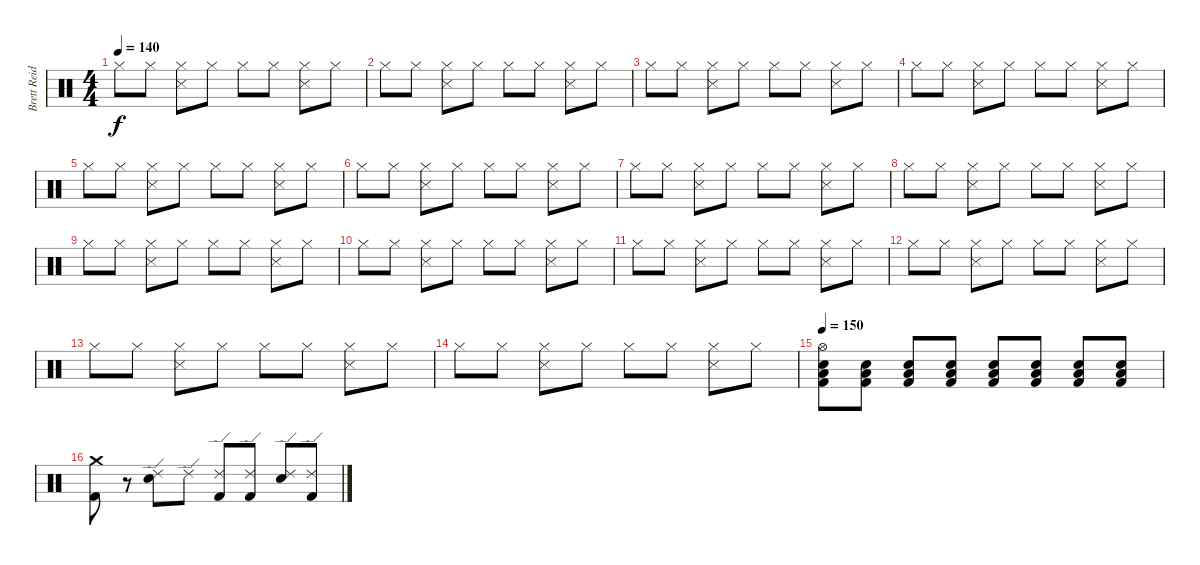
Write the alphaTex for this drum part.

\track ("Brett Reid" "Brett Reid") {instrument percussion}
\staff {score}
\articulation defaults
\ts (4 4)
\tempo 140
\clef neutral
\ks c "Hi-Hat (closed)".8{dy f} "Hi-Hat (closed)".8
("Snare (side stick) 3" "Hi-Hat (closed)").8 "Hi-Hat (closed)".8 "Hi-Hat (closed)".8 "Hi-Hat (closed)".8 ("Snare (side stick) 3" "Hi-Hat (closed)").8 "Hi-Hat (closed)".8 |
"Hi-Hat (closed)".8 "Hi-Hat (closed)".8 ("Snare (side stick) 3" "Hi-Hat (closed)").8 "Hi-Hat (closed)".8 "Hi-Hat (closed)".8 "Hi-Hat (closed)".8 ("Snare (side stick) 3" "Hi-Hat (closed)").8 "Hi-Hat (closed)".8 |
"Hi-Hat (closed)".8 "Hi-Hat (closed)".8 ("Snare (side stick) 3" "Hi-Hat (closed)").8 "Hi-Hat (closed)".8 "Hi-Hat (closed)".8 "Hi-Hat (closed)".8 ("Snare (side stick) 3" "Hi-Hat (closed)").8 "Hi-Hat (closed)".8 |
"Hi-Hat (closed)".8 "Hi-Hat (closed)".8 ("Snare (side stick) 3" "Hi-Hat (closed)").8 "Hi-Hat (closed)".8 "Hi-Hat (closed)".8 "Hi-Hat (closed)".8 ("Snare (side stick) 3" "Hi-Hat (closed)").8 "Hi-Hat (closed)".8 |
"Hi-Hat (closed)".8 "Hi-Hat (closed)".8 ("Snare (side stick) 3" "Hi-Hat (closed)").8 "Hi-Hat (closed)".8 "Hi-Hat (closed)".8 "Hi-Hat (closed)".8 ("Snare (side stick) 3" "Hi-Hat (closed)").8 "Hi-Hat (closed)".8 |
"Hi-Hat (closed)".8 "Hi-Hat (closed)".8 ("Snare (side stick) 3" "Hi-Hat (closed)").8 "Hi-Hat (closed)".8 "Hi-Hat (closed)".8 "Hi-Hat (closed)".8 ("Snare (side stick) 3" "Hi-Hat (closed)").8 "Hi-Hat (closed)".8 |
"Hi-Hat (closed)".8 "Hi-Hat (closed)".8 ("Snare (side stick) 3" "Hi-Hat (closed)").8 "Hi-Hat (closed)".8 "Hi-Hat (closed)".8 "Hi-Hat (closed)".8 ("Snare (side stick) 3" "Hi-Hat (closed)").8 "Hi-Hat (closed)".8 |
"Hi-Hat (closed)".8 "Hi-Hat (closed)".8 ("Snare (side stick) 3" "Hi-Hat (closed)").8 "Hi-Hat (closed)".8 "Hi-Hat (closed)".8 "Hi-Hat (closed)".8 ("Snare (side stick) 3" "Hi-Hat (closed)").8 "Hi-Hat (closed)".8 |
"Hi-Hat (closed)".8 "Hi-Hat (closed)".8 ("Snare (side stick) 3" "Hi-Hat (closed)").8 "Hi-Hat (closed)".8 "Hi-Hat (closed)".8 "Hi-Hat (closed)".8 ("Snare (side stick) 3" "Hi-Hat (closed)").8 "Hi-Hat (closed)".8 |
"Hi-Hat (closed)".8 "Hi-Hat (closed)".8 ("Snare (side stick) 3" "Hi-Hat (closed)").8 "Hi-Hat (closed)".8 "Hi-Hat (closed)".8 "Hi-Hat (closed)".8 ("Snare (side stick) 3" "Hi-Hat (closed)").8 "Hi-Hat (closed)".8 |
"Hi-Hat (closed)".8 "Hi-Hat (closed)".8 ("Snare (side stick) 3" "Hi-Hat (closed)").8 "Hi-Hat (closed)".8 "Hi-Hat (closed)".8 "Hi-Hat (closed)".8 ("Snare (side stick) 3" "Hi-Hat (closed)").8 "Hi-Hat (closed)".8 |
"Hi-Hat (closed)".8 "Hi-Hat (closed)".8 ("Snare (side stick) 3" "Hi-Hat (closed)").8 "Hi-Hat (closed)".8 "Hi-Hat (closed)".8 "Hi-Hat (closed)".8 ("Snare (side stick) 3" "Hi-Hat (closed)").8 "Hi-Hat (closed)".8 |
"Hi-Hat (closed)".8 "Hi-Hat (closed)".8 ("Snare (side stick) 3" "Hi-Hat (closed)").8 "Hi-Hat (closed)".8 "Hi-Hat (closed)".8 "Hi-Hat (closed)".8 ("Snare (side stick) 3" "Hi-Hat (closed)").8 "Hi-Hat (closed)".8 |
"Hi-Hat (closed)".8 "Hi-Hat (closed)".8 ("Snare (side stick) 3" "Hi-Hat (closed)").8 "Hi-Hat (closed)".8 "Hi-Hat (closed)".8 "Hi-Hat (closed)".8 ("Snare (side stick) 3" "Hi-Hat (closed)").8 "Hi-Hat (closed)".8 |
\tempo 150
("Hi-Hat (open)" "Low Floor Tom (hit)" "Snare (hit) 2" "Kick (hit) 2").8 ("Low Floor Tom (hit)" "Snare (hit) 2" "Kick (hit) 2").8 ("Low Floor Tom (hit)" "Snare (hit) 2" "Kick (hit) 2").8 ("Low Floor Tom (hit)" "Snare (hit) 2" "Kick (hit) 2").8 ("Low Floor Tom (hit)" "Snare (hit) 2" "Kick (hit) 2").8 ("Low Floor Tom (hit)" "Snare (hit) 2" "Kick (hit) 2").8 ("Low Floor Tom (hit)" "Snare (hit) 2" "Kick (hit) 2").8 ("Low Floor Tom (hit)" "Snare (hit) 2" "Kick (hit) 2").8 |
("Crash medium (hit)" "Kick (hit) 2").8 r.8 ("Ride (edge) 2" "Snare (hit) 2").8 "Ride (edge) 2".8 ("Ride (edge) 2" "Kick (hit) 2").8 ("Ride (edge) 2" "Kick (hit) 2").8 ("Ride (edge) 2" "Snare (hit) 2").8 ("Ride (edge) 2" "Kick (hit) 2").8
